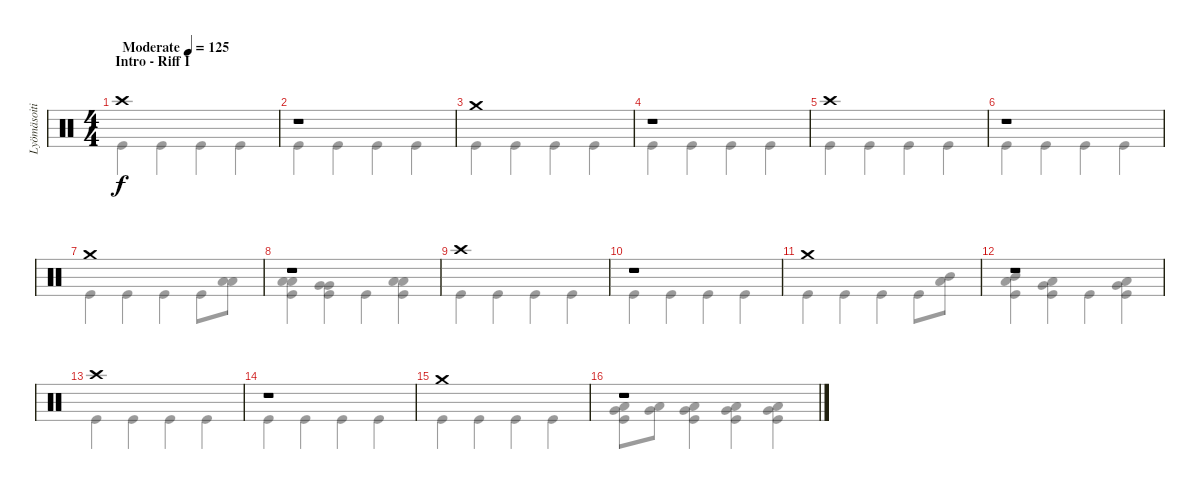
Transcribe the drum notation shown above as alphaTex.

\track ("Lyömäsoitin" "Lyömäsoiti") {instrument percussion}
\staff {score}
\articulation defaults
\voice
\ts (4 4)
\section ("" "Intro - Riff I")
\tempo (125 "Moderate")
\clef neutral
\ks c "Crash high (hit)".1{dy f}
|
r.1 |
"Crash medium (hit)".1 |
r.1 |
"Crash high (hit)".1 |
r.1 |
"Crash medium (hit)".1 |
r.1 |
"Crash high (hit)".1 |
r.1 |
"Crash medium (hit)".1 |
r.1 |
"Crash high (hit)".1 |
r.1 |
"Crash medium (hit)".1 |
r.1
\voice
\clef neutral
\ottava regular
\simile none
\ks c "Kick (hit)".4{dy f} "Kick (hit)".4 "Kick (hit)".4 "Kick (hit)".4
|
"Kick (hit)".4 "Kick (hit)".4 "Kick (hit)".4 "Kick (hit)".4 |
"Kick (hit)".4 "Kick (hit)".4 "Kick (hit)".4 "Kick (hit)".4 |
"Kick (hit)".4 "Kick (hit)".4 "Kick (hit)".4 "Kick (hit)".4 |
"Kick (hit)".4 "Kick (hit)".4 "Kick (hit)".4 "Kick (hit)".4 |
"Kick (hit)".4 "Kick (hit)".4 "Kick (hit)".4 "Kick (hit)".4 |
"Kick (hit)".4 "Kick (hit)".4 "Kick (hit)".4 "Kick (hit)".8 ("Low Tom (hit)" "Low Tom (hit)").8 |
("Low Tom (hit)" "Low Tom (hit)" "Kick (hit)").4 ("Very Low Tom (hit)" "Very Low Tom (hit)" "Kick (hit)").4 "Kick (hit)".4 ("Low Floor Tom (hit)" "Low Floor Tom (hit)" "Kick (hit)").4 |
"Kick (hit)".4 "Kick (hit)".4 "Kick (hit)".4 "Kick (hit)".4 |
"Kick (hit)".4 "Kick (hit)".4 "Kick (hit)".4 "Kick (hit)".4 |
"Kick (hit)".4 "Kick (hit)".4 "Kick (hit)".4 "Kick (hit)".8 ("Mid Tom (hit)" "Low Tom (hit)").8 |
("Mid Tom (hit)" "Low Tom (hit)" "Kick (hit)").4 ("Low Tom (hit)" "Very Low Tom (hit)" "Kick (hit)").4 "Kick (hit)".4 ("Very Low Tom (hit)" "Low Floor Tom (hit)" "Kick (hit)").4 |
"Kick (hit)".4 "Kick (hit)".4 "Kick (hit)".4 "Kick (hit)".4 |
"Kick (hit)".4 "Kick (hit)".4 "Kick (hit)".4 "Kick (hit)".4 |
"Kick (hit)".4 "Kick (hit)".4 "Kick (hit)".4 "Kick (hit)".4 |
("Very Low Tom (hit)" "Low Floor Tom (hit)" "Kick (hit)").8 ("Very Low Tom (hit)" "Low Floor Tom (hit)").8 ("Very Low Tom (hit)" "Low Floor Tom (hit)" "Kick (hit)").4 ("Very Low Tom (hit)" "Low Floor Tom (hit)" "Kick (hit)").4 ("Very Low Tom (hit)" "Low Floor Tom (hit)" "Kick (hit)").4
